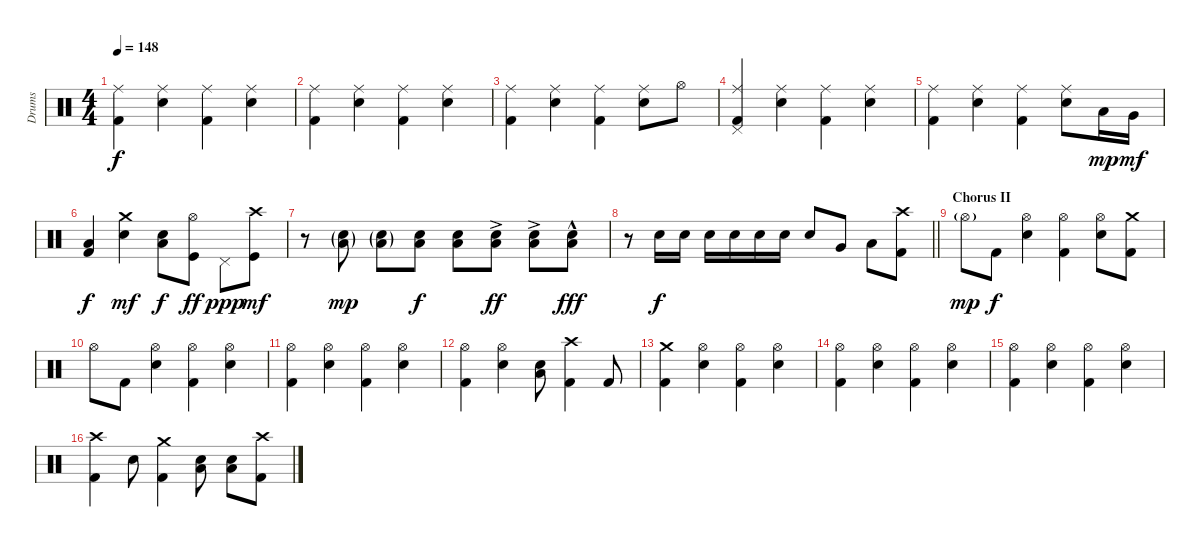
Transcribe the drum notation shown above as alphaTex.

\track ("Drums" "Drums") {instrument percussion}
\staff {score}
\articulation defaults
\ts (4 4)
\tempo 148
\clef neutral
\ks c
("Ride (middle)" "Kick (hit) 2").4{dy f} ("Ride (middle)" "Electric Snare (hit)").4 ("Ride (middle)" "Kick (hit) 2").4 ("Ride (middle)" "Electric Snare (hit)").4 |
("Ride (middle)" "Kick (hit) 2").4 ("Ride (middle)" "Electric Snare (hit)").4 ("Ride (middle)" "Kick (hit) 2").4 ("Ride (middle)" "Electric Snare (hit)").4 |
("Ride (middle)" "Kick (hit) 2").4 ("Ride (middle)" "Electric Snare (hit)").4 ("Ride (middle)" "Kick (hit) 2").4 ("Ride (middle)" "Electric Snare (hit)").8 "Hi-Hat (open)".8 |
("Ride (middle)" "Kick (hit) 2" "Pedal Hi-Hat (hit)").4 ("Ride (middle)" "Electric Snare (hit)").4 ("Ride (middle)" "Kick (hit) 2").4 ("Ride (middle)" "Electric Snare (hit)").4 |
("Ride (middle)" "Kick (hit) 2").4 ("Ride (middle)" "Electric Snare (hit)").4 ("Ride (middle)" "Kick (hit) 2").4 ("Ride (middle)" "Electric Snare (hit)").8 "Low Tom (hit)".16{dy mp} "Very Low Tom (hit)".16{dy mf} |
("Low Floor Tom (hit)" "Kick (hit) 2").4{dy f} ("Electric Snare (hit)" "Crash medium (hit)").4{dy mf} ("Electric Snare (hit)" "Low Floor Tom (hit)").8{dy f} ("Kick (hit)" "Hi-Hat (open)").8{dy ff} "Pedal Hi-Hat (hit)".8{dy ppp} ("Kick (hit)" "Crash high (hit)").8{dy mf} |
r.8 ("Low Floor Tom (hit)"{g} "Electric Snare (hit)"{g}).8{dy mp} ("Low Floor Tom (hit)"{g} "Electric Snare (hit)"{g}).8 ("Low Floor Tom (hit)" "Electric Snare (hit)").8{dy f} ("Low Floor Tom (hit)" "Electric Snare (hit)").8 ("Low Floor Tom (hit)"{ac} "Electric Snare (hit)"{ac}).8{dy ff} ("Low Floor Tom (hit)"{ac} "Electric Snare (hit)"{ac}).8 ("Low Floor Tom (hit)" "Electric Snare (hit)"{hac}).8{dy fff} |
\barLineRight lightlight
r.8 "Electric Snare (hit)".16{dy f} "Electric Snare (hit)".16 "Electric Snare (hit)".16 "Electric Snare (hit)".16 "Electric Snare (hit)".16 "Electric Snare (hit)".16 "Electric Snare (hit)".8 "Very Low Tom (hit)".8 "Low Floor Tom (hit)".8 ("Crash high (hit)" "Kick (hit) 2").8 |
\section ("" "Chorus II")
"Hi-Hat (open)"{g}.8{dy mp} "Kick (hit) 2".8{dy f} ("Hi-Hat (open)" "Electric Snare (hit)").4 ("Hi-Hat (open)" "Kick (hit) 2").4 ("Hi-Hat (open)" "Electric Snare (hit)").8 ("Crash medium (hit)" "Kick (hit) 2").8 |
"Hi-Hat (open)".8 "Kick (hit) 2".8 ("Hi-Hat (open)" "Electric Snare (hit)").4 ("Hi-Hat (open)" "Kick (hit) 2").4 ("Hi-Hat (open)" "Electric Snare (hit)").4 |
("Hi-Hat (open)" "Kick (hit) 2").4 ("Hi-Hat (open)" "Electric Snare (hit)").4 ("Hi-Hat (open)" "Kick (hit) 2").4 ("Hi-Hat (open)" "Electric Snare (hit)").4 |
("Hi-Hat (open)" "Kick (hit) 2").4 ("Hi-Hat (open)" "Electric Snare (hit)").4 ("Low Tom (hit)" "Electric Snare (hit)").8 ("Crash high (hit)" "Kick (hit) 2").4 "Kick (hit) 2".8 |
("Crash medium (hit)" "Kick (hit) 2").4 ("Hi-Hat (open)" "Electric Snare (hit)").4 ("Hi-Hat (open)" "Kick (hit) 2").4 ("Hi-Hat (open)" "Electric Snare (hit)").4 |
("Hi-Hat (open)" "Kick (hit) 2").4 ("Hi-Hat (open)" "Electric Snare (hit)").4 ("Hi-Hat (open)" "Kick (hit) 2").4 ("Hi-Hat (open)" "Electric Snare (hit)").4 |
("Hi-Hat (open)" "Kick (hit) 2").4 ("Hi-Hat (open)" "Electric Snare (hit)").4 ("Hi-Hat (open)" "Kick (hit) 2").4 ("Hi-Hat (open)" "Electric Snare (hit)").4 |
("Crash high (hit)" "Kick (hit) 2").4 "Electric Snare (hit)".8 ("Crash medium (hit)" "Kick (hit) 2").4 ("Electric Snare (hit)" "Low Floor Tom (hit)").8 ("Electric Snare (hit)" "Low Floor Tom (hit)").8 ("Crash high (hit)" "Kick (hit) 2").8
